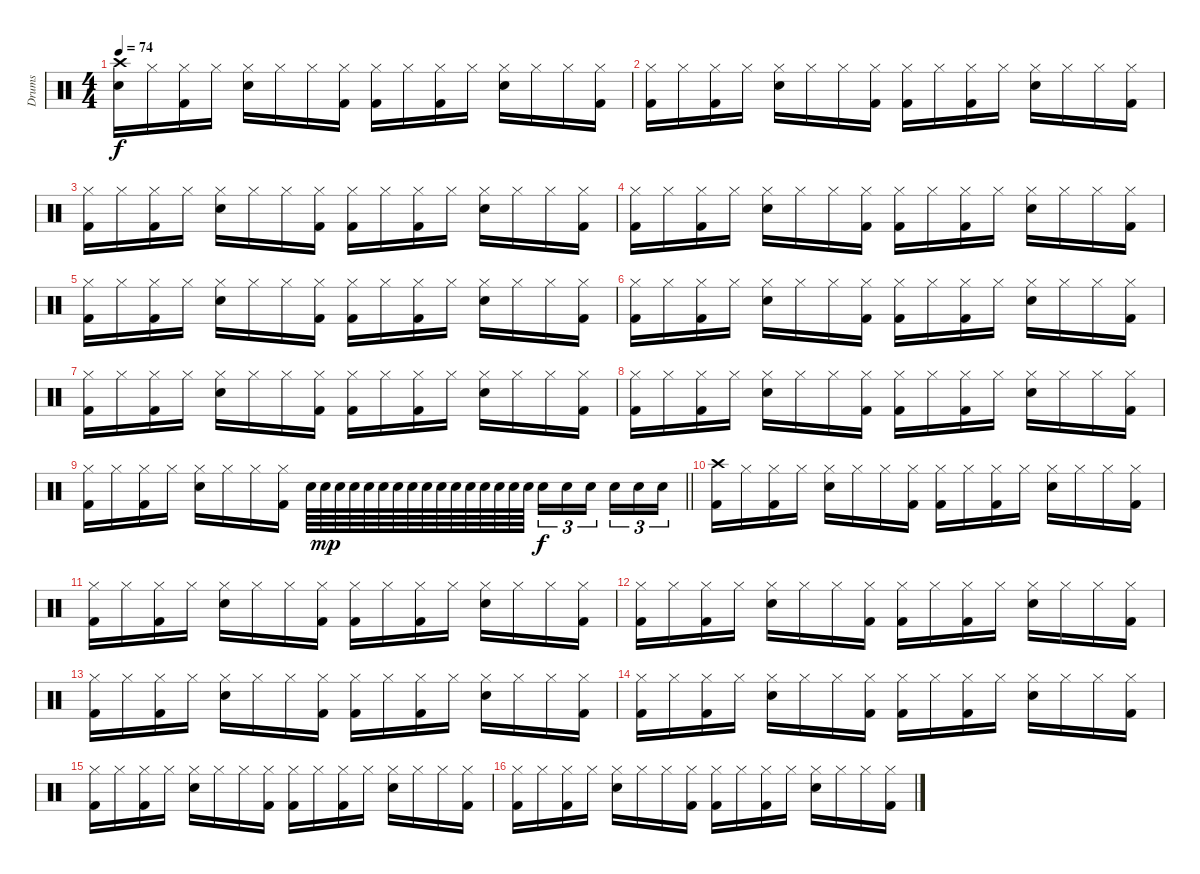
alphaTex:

\track ("Drums" "Drums") {instrument percussion}
\staff {score}
\articulation defaults
\ts (4 4)
\tempo 74
\clef neutral
\ks aminor
("Crash high (hit)" "Snare (hit) 2").16{dy f} "Hi-Hat (closed)".16 ("Hi-Hat (closed)" "Kick (hit) 2").16 "Hi-Hat (closed)".16 ("Hi-Hat (closed)" "Snare (hit) 2").16 "Hi-Hat (closed)".16 "Hi-Hat (closed)".16 ("Hi-Hat (closed)" "Kick (hit) 2").16 ("Hi-Hat (closed)" "Kick (hit) 2").16 "Hi-Hat (closed)".16 ("Hi-Hat (closed)" "Kick (hit) 2").16 "Hi-Hat (closed)".16 ("Hi-Hat (closed)" "Snare (hit) 2").16 "Hi-Hat (closed)".16 "Hi-Hat (closed)".16 ("Hi-Hat (closed)" "Kick (hit) 2").16 |
("Hi-Hat (closed)" "Kick (hit) 2").16 "Hi-Hat (closed)".16 ("Hi-Hat (closed)" "Kick (hit) 2").16 "Hi-Hat (closed)".16 ("Hi-Hat (closed)" "Snare (hit) 2").16 "Hi-Hat (closed)".16 "Hi-Hat (closed)".16 ("Hi-Hat (closed)" "Kick (hit) 2").16 ("Hi-Hat (closed)" "Kick (hit) 2").16 "Hi-Hat (closed)".16 ("Hi-Hat (closed)" "Kick (hit) 2").16 "Hi-Hat (closed)".16 ("Hi-Hat (closed)" "Snare (hit) 2").16 "Hi-Hat (closed)".16 "Hi-Hat (closed)".16 ("Hi-Hat (closed)" "Kick (hit) 2").16 |
("Hi-Hat (closed)" "Kick (hit) 2").16 "Hi-Hat (closed)".16 ("Hi-Hat (closed)" "Kick (hit) 2").16 "Hi-Hat (closed)".16 ("Hi-Hat (closed)" "Snare (hit) 2").16 "Hi-Hat (closed)".16 "Hi-Hat (closed)".16 ("Hi-Hat (closed)" "Kick (hit) 2").16 ("Hi-Hat (closed)" "Kick (hit) 2").16 "Hi-Hat (closed)".16 ("Hi-Hat (closed)" "Kick (hit) 2").16 "Hi-Hat (closed)".16 ("Hi-Hat (closed)" "Snare (hit) 2").16 "Hi-Hat (closed)".16 "Hi-Hat (closed)".16 ("Hi-Hat (closed)" "Kick (hit) 2").16 |
("Hi-Hat (closed)" "Kick (hit) 2").16 "Hi-Hat (closed)".16 ("Hi-Hat (closed)" "Kick (hit) 2").16 "Hi-Hat (closed)".16 ("Hi-Hat (closed)" "Snare (hit) 2").16 "Hi-Hat (closed)".16 "Hi-Hat (closed)".16 ("Hi-Hat (closed)" "Kick (hit) 2").16 ("Hi-Hat (closed)" "Kick (hit) 2").16 "Hi-Hat (closed)".16 ("Hi-Hat (closed)" "Kick (hit) 2").16 "Hi-Hat (closed)".16 ("Hi-Hat (closed)" "Snare (hit) 2").16 "Hi-Hat (closed)".16 "Hi-Hat (closed)".16 ("Hi-Hat (closed)" "Kick (hit) 2").16 |
("Hi-Hat (closed)" "Kick (hit) 2").16 "Hi-Hat (closed)".16 ("Hi-Hat (closed)" "Kick (hit) 2").16 "Hi-Hat (closed)".16 ("Hi-Hat (closed)" "Snare (hit) 2").16 "Hi-Hat (closed)".16 "Hi-Hat (closed)".16 ("Hi-Hat (closed)" "Kick (hit) 2").16 ("Hi-Hat (closed)" "Kick (hit) 2").16 "Hi-Hat (closed)".16 ("Hi-Hat (closed)" "Kick (hit) 2").16 "Hi-Hat (closed)".16 ("Hi-Hat (closed)" "Snare (hit) 2").16 "Hi-Hat (closed)".16 "Hi-Hat (closed)".16 ("Hi-Hat (closed)" "Kick (hit) 2").16 |
("Hi-Hat (closed)" "Kick (hit) 2").16 "Hi-Hat (closed)".16 ("Hi-Hat (closed)" "Kick (hit) 2").16 "Hi-Hat (closed)".16 ("Hi-Hat (closed)" "Snare (hit) 2").16 "Hi-Hat (closed)".16 "Hi-Hat (closed)".16 ("Hi-Hat (closed)" "Kick (hit) 2").16 ("Hi-Hat (closed)" "Kick (hit) 2").16 "Hi-Hat (closed)".16 ("Hi-Hat (closed)" "Kick (hit) 2").16 "Hi-Hat (closed)".16 ("Hi-Hat (closed)" "Snare (hit) 2").16 "Hi-Hat (closed)".16 "Hi-Hat (closed)".16 ("Hi-Hat (closed)" "Kick (hit) 2").16 |
("Hi-Hat (closed)" "Kick (hit) 2").16 "Hi-Hat (closed)".16 ("Hi-Hat (closed)" "Kick (hit) 2").16 "Hi-Hat (closed)".16 ("Hi-Hat (closed)" "Snare (hit) 2").16 "Hi-Hat (closed)".16 "Hi-Hat (closed)".16 ("Hi-Hat (closed)" "Kick (hit) 2").16 ("Hi-Hat (closed)" "Kick (hit) 2").16 "Hi-Hat (closed)".16 ("Hi-Hat (closed)" "Kick (hit) 2").16 "Hi-Hat (closed)".16 ("Hi-Hat (closed)" "Snare (hit) 2").16 "Hi-Hat (closed)".16 "Hi-Hat (closed)".16 ("Hi-Hat (closed)" "Kick (hit) 2").16 |
("Hi-Hat (closed)" "Kick (hit) 2").16 "Hi-Hat (closed)".16 ("Hi-Hat (closed)" "Kick (hit) 2").16 "Hi-Hat (closed)".16 ("Hi-Hat (closed)" "Snare (hit) 2").16 "Hi-Hat (closed)".16 "Hi-Hat (closed)".16 ("Hi-Hat (closed)" "Kick (hit) 2").16 ("Hi-Hat (closed)" "Kick (hit) 2").16 "Hi-Hat (closed)".16 ("Hi-Hat (closed)" "Kick (hit) 2").16 "Hi-Hat (closed)".16 ("Hi-Hat (closed)" "Snare (hit) 2").16 "Hi-Hat (closed)".16 "Hi-Hat (closed)".16 ("Hi-Hat (closed)" "Kick (hit) 2").16 |
\barLineRight lightlight
("Hi-Hat (closed)" "Kick (hit) 2").16 "Hi-Hat (closed)".16 ("Hi-Hat (closed)" "Kick (hit) 2").16 "Hi-Hat (closed)".16 ("Hi-Hat (closed)" "Snare (hit) 2").16 "Hi-Hat (closed)".16 "Hi-Hat (closed)".16 ("Hi-Hat (closed)" "Kick (hit) 2").16 "Snare (hit) 2".64 "Snare (hit) 2".64{dy mp} "Snare (hit) 2".64 "Snare (hit) 2".64 "Snare (hit) 2".64 "Snare (hit) 2".64 "Snare (hit) 2".64 "Snare (hit) 2".64 "Snare (hit) 2".64 "Snare (hit) 2".64 "Snare (hit) 2".64 "Snare (hit) 2".64 "Snare (hit) 2".64 "Snare (hit) 2".64 "Snare (hit) 2".64 "Snare (hit) 2".64 "Snare (hit) 2".16{tu (3 2) dy f} "Snare (hit) 2".16{tu (3 2)} "Snare (hit) 2".16{tu (3 2)} "Snare (hit) 2".16{tu (3 2)} "Snare (hit) 2".16{tu (3 2)} "Snare (hit) 2".16{tu (3 2)} |
("Crash high (hit)" "Kick (hit) 2").16 "Hi-Hat (closed)".16 ("Hi-Hat (closed)" "Kick (hit) 2").16 "Hi-Hat (closed)".16 ("Hi-Hat (closed)" "Snare (hit) 2").16 "Hi-Hat (closed)".16 "Hi-Hat (closed)".16 ("Hi-Hat (closed)" "Kick (hit) 2").16 ("Hi-Hat (closed)" "Kick (hit) 2").16 "Hi-Hat (closed)".16 ("Hi-Hat (closed)" "Kick (hit) 2").16 "Hi-Hat (closed)".16 ("Hi-Hat (closed)" "Snare (hit) 2").16 "Hi-Hat (closed)".16 "Hi-Hat (closed)".16 ("Hi-Hat (closed)" "Kick (hit) 2").16 |
("Hi-Hat (closed)" "Kick (hit) 2").16 "Hi-Hat (closed)".16 ("Hi-Hat (closed)" "Kick (hit) 2").16 "Hi-Hat (closed)".16 ("Hi-Hat (closed)" "Snare (hit) 2").16 "Hi-Hat (closed)".16 "Hi-Hat (closed)".16 ("Hi-Hat (closed)" "Kick (hit) 2").16 ("Hi-Hat (closed)" "Kick (hit) 2").16 "Hi-Hat (closed)".16 ("Hi-Hat (closed)" "Kick (hit) 2").16 "Hi-Hat (closed)".16 ("Hi-Hat (closed)" "Snare (hit) 2").16 "Hi-Hat (closed)".16 "Hi-Hat (closed)".16 ("Hi-Hat (closed)" "Kick (hit) 2").16 |
("Hi-Hat (closed)" "Kick (hit) 2").16 "Hi-Hat (closed)".16 ("Hi-Hat (closed)" "Kick (hit) 2").16 "Hi-Hat (closed)".16 ("Hi-Hat (closed)" "Snare (hit) 2").16 "Hi-Hat (closed)".16 "Hi-Hat (closed)".16 ("Hi-Hat (closed)" "Kick (hit) 2").16 ("Hi-Hat (closed)" "Kick (hit) 2").16 "Hi-Hat (closed)".16 ("Hi-Hat (closed)" "Kick (hit) 2").16 "Hi-Hat (closed)".16 ("Hi-Hat (closed)" "Snare (hit) 2").16 "Hi-Hat (closed)".16 "Hi-Hat (closed)".16 ("Hi-Hat (closed)" "Kick (hit) 2").16 |
("Hi-Hat (closed)" "Kick (hit) 2").16 "Hi-Hat (closed)".16 ("Hi-Hat (closed)" "Kick (hit) 2").16 "Hi-Hat (closed)".16 ("Hi-Hat (closed)" "Snare (hit) 2").16 "Hi-Hat (closed)".16 "Hi-Hat (closed)".16 ("Hi-Hat (closed)" "Kick (hit) 2").16 ("Hi-Hat (closed)" "Kick (hit) 2").16 "Hi-Hat (closed)".16 ("Hi-Hat (closed)" "Kick (hit) 2").16 "Hi-Hat (closed)".16 ("Hi-Hat (closed)" "Snare (hit) 2").16 "Hi-Hat (closed)".16 "Hi-Hat (closed)".16 ("Hi-Hat (closed)" "Kick (hit) 2").16 |
("Hi-Hat (closed)" "Kick (hit) 2").16 "Hi-Hat (closed)".16 ("Hi-Hat (closed)" "Kick (hit) 2").16 "Hi-Hat (closed)".16 ("Hi-Hat (closed)" "Snare (hit) 2").16 "Hi-Hat (closed)".16 "Hi-Hat (closed)".16 ("Hi-Hat (closed)" "Kick (hit) 2").16 ("Hi-Hat (closed)" "Kick (hit) 2").16 "Hi-Hat (closed)".16 ("Hi-Hat (closed)" "Kick (hit) 2").16 "Hi-Hat (closed)".16 ("Hi-Hat (closed)" "Snare (hit) 2").16 "Hi-Hat (closed)".16 "Hi-Hat (closed)".16 ("Hi-Hat (closed)" "Kick (hit) 2").16 |
("Hi-Hat (closed)" "Kick (hit) 2").16 "Hi-Hat (closed)".16 ("Hi-Hat (closed)" "Kick (hit) 2").16 "Hi-Hat (closed)".16 ("Hi-Hat (closed)" "Snare (hit) 2").16 "Hi-Hat (closed)".16 "Hi-Hat (closed)".16 ("Hi-Hat (closed)" "Kick (hit) 2").16 ("Hi-Hat (closed)" "Kick (hit) 2").16 "Hi-Hat (closed)".16 ("Hi-Hat (closed)" "Kick (hit) 2").16 "Hi-Hat (closed)".16 ("Hi-Hat (closed)" "Snare (hit) 2").16 "Hi-Hat (closed)".16 "Hi-Hat (closed)".16 ("Hi-Hat (closed)" "Kick (hit) 2").16 |
("Hi-Hat (closed)" "Kick (hit) 2").16 "Hi-Hat (closed)".16 ("Hi-Hat (closed)" "Kick (hit) 2").16 "Hi-Hat (closed)".16 ("Hi-Hat (closed)" "Snare (hit) 2").16 "Hi-Hat (closed)".16 "Hi-Hat (closed)".16 ("Hi-Hat (closed)" "Kick (hit) 2").16 ("Hi-Hat (closed)" "Kick (hit) 2").16 "Hi-Hat (closed)".16 ("Hi-Hat (closed)" "Kick (hit) 2").16 "Hi-Hat (closed)".16 ("Hi-Hat (closed)" "Snare (hit) 2").16 "Hi-Hat (closed)".16 "Hi-Hat (closed)".16 ("Hi-Hat (closed)" "Kick (hit) 2").16
